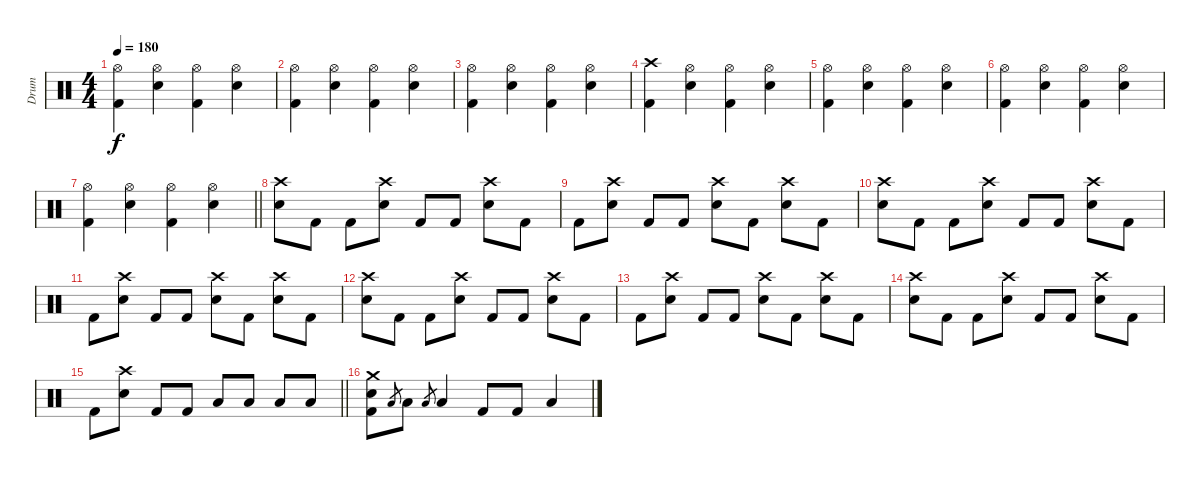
\track ("Drum" "Drum") {instrument percussion}
\staff {score}
\articulation defaults
\ts (4 4)
\tempo 180
\clef neutral
\ks c
("Hi-Hat (open)" "Kick (hit) 2").4{dy f} ("Hi-Hat (open)" "Electric Snare (hit)").4 ("Hi-Hat (open)" "Kick (hit) 2").4 ("Hi-Hat (open)" "Electric Snare (hit)").4 |
("Hi-Hat (open)" "Kick (hit) 2").4 ("Hi-Hat (open)" "Electric Snare (hit)").4 ("Hi-Hat (open)" "Kick (hit) 2").4 ("Hi-Hat (open)" "Electric Snare (hit)").4 |
("Hi-Hat (open)" "Kick (hit) 2").4 ("Hi-Hat (open)" "Electric Snare (hit)").4 ("Hi-Hat (open)" "Kick (hit) 2").4 ("Hi-Hat (open)" "Electric Snare (hit)").4 |
("Crash high (hit)" "Kick (hit) 2").4 ("Hi-Hat (open)" "Electric Snare (hit)").4 ("Hi-Hat (open)" "Kick (hit) 2").4 ("Hi-Hat (open)" "Electric Snare (hit)").4 |
("Hi-Hat (open)" "Kick (hit) 2").4 ("Hi-Hat (open)" "Electric Snare (hit)").4 ("Hi-Hat (open)" "Kick (hit) 2").4 ("Hi-Hat (open)" "Electric Snare (hit)").4 |
("Hi-Hat (open)" "Kick (hit) 2").4 ("Hi-Hat (open)" "Electric Snare (hit)").4 ("Hi-Hat (open)" "Kick (hit) 2").4 ("Hi-Hat (open)" "Electric Snare (hit)").4 |
\barLineRight lightlight
("Hi-Hat (open)" "Kick (hit) 2").4 ("Hi-Hat (open)" "Electric Snare (hit)").4 ("Hi-Hat (open)" "Kick (hit) 2").4 ("Hi-Hat (open)" "Electric Snare (hit)").4 |
("Crash high (hit)" "Electric Snare (hit)").8 "Kick (hit) 2".8 "Kick (hit) 2".8 ("Crash high (hit)" "Electric Snare (hit)").8 "Kick (hit) 2".8 "Kick (hit) 2".8 ("Crash high (hit)" "Electric Snare (hit)").8 "Kick (hit) 2".8 |
"Kick (hit) 2".8 ("Crash high (hit)" "Electric Snare (hit)").8 "Kick (hit) 2".8 "Kick (hit) 2".8 ("Crash high (hit)" "Electric Snare (hit)").8 "Kick (hit) 2".8 ("Crash high (hit)" "Electric Snare (hit)").8 "Kick (hit) 2".8 |
("Crash high (hit)" "Electric Snare (hit)").8 "Kick (hit) 2".8 "Kick (hit) 2".8 ("Crash high (hit)" "Electric Snare (hit)").8 "Kick (hit) 2".8 "Kick (hit) 2".8 ("Crash high (hit)" "Electric Snare (hit)").8 "Kick (hit) 2".8 |
"Kick (hit) 2".8 ("Crash high (hit)" "Electric Snare (hit)").8 "Kick (hit) 2".8 "Kick (hit) 2".8 ("Crash high (hit)" "Electric Snare (hit)").8 "Kick (hit) 2".8 ("Crash high (hit)" "Electric Snare (hit)").8 "Kick (hit) 2".8 |
("Crash high (hit)" "Electric Snare (hit)").8 "Kick (hit) 2".8 "Kick (hit) 2".8 ("Crash high (hit)" "Electric Snare (hit)").8 "Kick (hit) 2".8 "Kick (hit) 2".8 ("Crash high (hit)" "Electric Snare (hit)").8 "Kick (hit) 2".8 |
"Kick (hit) 2".8 ("Crash high (hit)" "Electric Snare (hit)").8 "Kick (hit) 2".8 "Kick (hit) 2".8 ("Crash high (hit)" "Electric Snare (hit)").8 "Kick (hit) 2".8 ("Crash high (hit)" "Electric Snare (hit)").8 "Kick (hit) 2".8 |
("Crash high (hit)" "Electric Snare (hit)").8 "Kick (hit) 2".8 "Kick (hit) 2".8 ("Crash high (hit)" "Electric Snare (hit)").8 "Kick (hit) 2".8 "Kick (hit) 2".8 ("Crash high (hit)" "Electric Snare (hit)").8 "Kick (hit) 2".8 |
\barLineRight lightlight "Kick (hit) 2".8
("Crash high (hit)" "Electric Snare (hit)").8 "Kick (hit) 2".8 "Kick (hit) 2".8 "Low Tom (hit)".8 "Low Tom (hit)".8 "Low Tom (hit)".8 "Low Tom (hit)".8 |
("Crash medium (hit)" "Electric Snare (hit)" "Kick (hit) 2").8 "Low Tom (hit)".8{gr} "Low Tom (hit)".8 "Low Tom (hit)".8{gr} "Low Tom (hit)".4 "Kick (hit) 2".8 "Kick (hit) 2".8 "Low Tom (hit)".4
